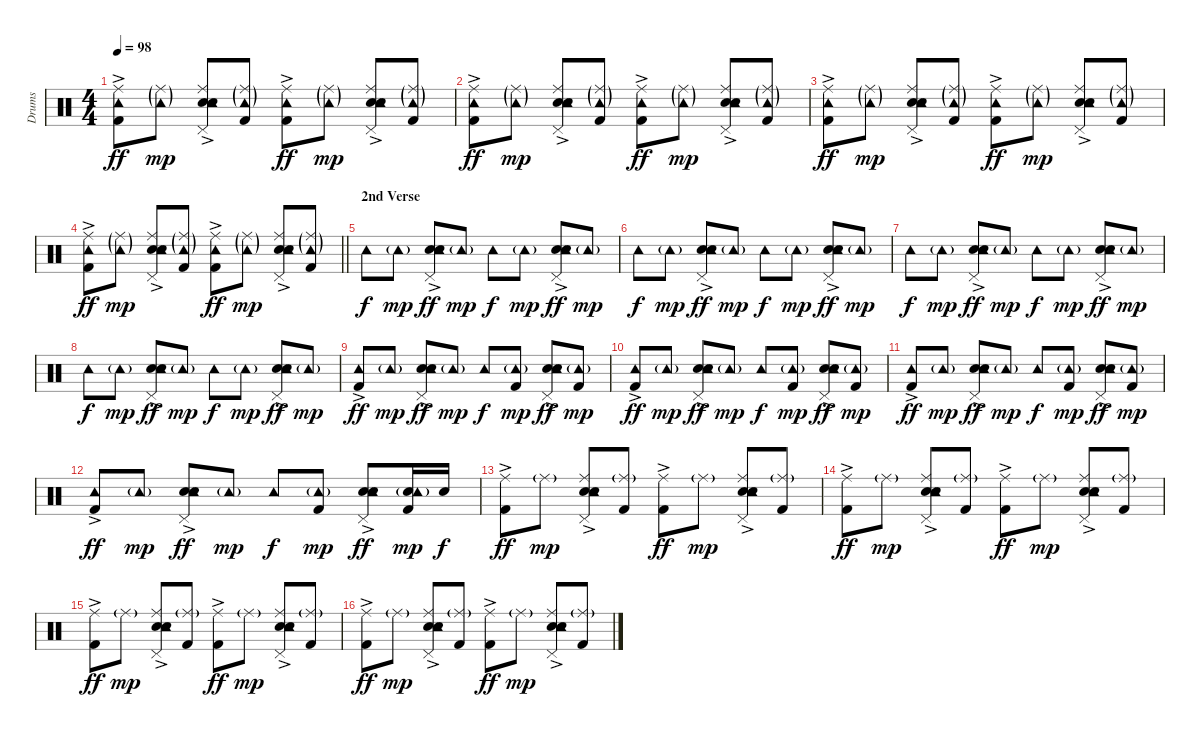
\track ("Drums" "Drums") {instrument percussion}
\staff {score}
\articulation defaults
\ts (4 4)
\tempo 98
\clef neutral
\ks c
("Kick (hit) 2"{ac} "Tambourine (hit)" "Ride (middle)").8{dy ff} ("Tambourine (hit)"{g} "Ride (middle)"{g}).8{dy mp} ("Electric Snare (hit)"{ac} "Snare (hit) 2" "Pedal Hi-Hat (hit)" "Tambourine (hit)" "Ride (middle)").8 ("Kick (hit) 2" "Tambourine (hit)"{g} "Ride (middle)"{g}).8 ("Kick (hit) 2"{ac} "Tambourine (hit)" "Ride (middle)").8{dy ff} ("Tambourine (hit)"{g} "Ride (middle)"{g}).8{dy mp} ("Electric Snare (hit)"{ac} "Snare (hit) 2" "Pedal Hi-Hat (hit)" "Tambourine (hit)" "Ride (middle)").8 ("Kick (hit) 2" "Tambourine (hit)"{g} "Ride (middle)"{g}).8 |
("Kick (hit) 2"{ac} "Tambourine (hit)" "Ride (middle)").8{dy ff} ("Tambourine (hit)"{g} "Ride (middle)"{g}).8{dy mp} ("Electric Snare (hit)"{ac} "Snare (hit) 2" "Pedal Hi-Hat (hit)" "Tambourine (hit)" "Ride (middle)").8 ("Kick (hit) 2" "Tambourine (hit)"{g} "Ride (middle)"{g}).8 ("Kick (hit) 2"{ac} "Tambourine (hit)" "Ride (middle)").8{dy ff} ("Tambourine (hit)"{g} "Ride (middle)"{g}).8{dy mp} ("Electric Snare (hit)"{ac} "Snare (hit) 2" "Pedal Hi-Hat (hit)" "Tambourine (hit)" "Ride (middle)").8 ("Kick (hit) 2" "Tambourine (hit)"{g} "Ride (middle)"{g}).8 |
("Kick (hit) 2"{ac} "Tambourine (hit)" "Ride (middle)").8{dy ff} ("Tambourine (hit)"{g} "Ride (middle)"{g}).8{dy mp} ("Electric Snare (hit)"{ac} "Snare (hit) 2" "Pedal Hi-Hat (hit)" "Tambourine (hit)" "Ride (middle)").8 ("Kick (hit) 2" "Tambourine (hit)"{g} "Ride (middle)"{g}).8 ("Kick (hit) 2"{ac} "Tambourine (hit)" "Ride (middle)").8{dy ff} ("Tambourine (hit)"{g} "Ride (middle)"{g}).8{dy mp} ("Electric Snare (hit)"{ac} "Snare (hit) 2" "Pedal Hi-Hat (hit)" "Tambourine (hit)" "Ride (middle)").8 ("Kick (hit) 2" "Tambourine (hit)"{g} "Ride (middle)"{g}).8 |
\barLineRight lightlight
("Kick (hit) 2"{ac} "Tambourine (hit)" "Ride (middle)").8{dy ff} ("Tambourine (hit)"{g} "Ride (middle)"{g}).8{dy mp} ("Electric Snare (hit)"{ac} "Snare (hit) 2" "Pedal Hi-Hat (hit)" "Tambourine (hit)" "Ride (middle)").8 ("Kick (hit) 2" "Tambourine (hit)"{g} "Ride (middle)"{g}).8 ("Kick (hit) 2"{ac} "Tambourine (hit)" "Ride (middle)").8{dy ff} ("Tambourine (hit)"{g} "Ride (middle)"{g}).8{dy mp} ("Electric Snare (hit)"{ac} "Snare (hit) 2" "Pedal Hi-Hat (hit)" "Tambourine (hit)" "Ride (middle)").8 ("Kick (hit) 2" "Tambourine (hit)"{g} "Ride (middle)"{g}).8 |
\section ("" "2nd Verse")
"Tambourine (hit)".8{dy f} "Tambourine (hit)"{g}.8{dy mp} ("Electric Snare (hit)"{ac} "Snare (hit) 2" "Pedal Hi-Hat (hit)" "Tambourine (hit)").8{dy ff} "Tambourine (hit)"{g}.8{dy mp} "Tambourine (hit)".8{dy f} "Tambourine (hit)"{g}.8{dy mp} ("Electric Snare (hit)"{ac} "Snare (hit) 2" "Pedal Hi-Hat (hit)" "Tambourine (hit)").8{dy ff} "Tambourine (hit)"{g}.8{dy mp} |
"Tambourine (hit)".8{dy f} "Tambourine (hit)"{g}.8{dy mp} ("Electric Snare (hit)"{ac} "Snare (hit) 2" "Pedal Hi-Hat (hit)" "Tambourine (hit)").8{dy ff} "Tambourine (hit)"{g}.8{dy mp} "Tambourine (hit)".8{dy f} "Tambourine (hit)"{g}.8{dy mp} ("Electric Snare (hit)"{ac} "Snare (hit) 2" "Pedal Hi-Hat (hit)" "Tambourine (hit)").8{dy ff} "Tambourine (hit)"{g}.8{dy mp} |
"Tambourine (hit)".8{dy f} "Tambourine (hit)"{g}.8{dy mp} ("Electric Snare (hit)"{ac} "Snare (hit) 2" "Pedal Hi-Hat (hit)" "Tambourine (hit)").8{dy ff} "Tambourine (hit)"{g}.8{dy mp} "Tambourine (hit)".8{dy f} "Tambourine (hit)"{g}.8{dy mp} ("Electric Snare (hit)"{ac} "Snare (hit) 2" "Pedal Hi-Hat (hit)" "Tambourine (hit)").8{dy ff} "Tambourine (hit)"{g}.8{dy mp} |
"Tambourine (hit)".8{dy f} "Tambourine (hit)"{g}.8{dy mp} ("Electric Snare (hit)"{ac} "Snare (hit) 2" "Pedal Hi-Hat (hit)" "Tambourine (hit)").8{dy ff} "Tambourine (hit)"{g}.8{dy mp} "Tambourine (hit)".8{dy f} "Tambourine (hit)"{g}.8{dy mp} ("Electric Snare (hit)"{ac} "Snare (hit) 2" "Pedal Hi-Hat (hit)" "Tambourine (hit)").8{dy ff} "Tambourine (hit)"{g}.8{dy mp} |
("Kick (hit) 2"{ac} "Tambourine (hit)").8{dy ff} "Tambourine (hit)"{g}.8{dy mp} ("Electric Snare (hit)"{ac} "Snare (hit) 2" "Pedal Hi-Hat (hit)" "Tambourine (hit)").8{dy ff} "Tambourine (hit)"{g}.8{dy mp} "Tambourine (hit)".8{dy f} ("Kick (hit) 2" "Tambourine (hit)"{g}).8{dy mp} ("Electric Snare (hit)"{ac} "Snare (hit) 2" "Pedal Hi-Hat (hit)" "Tambourine (hit)").8{dy ff} ("Kick (hit) 2" "Tambourine (hit)"{g}).8{dy mp} |
("Kick (hit) 2"{ac} "Tambourine (hit)").8{dy ff} "Tambourine (hit)"{g}.8{dy mp} ("Electric Snare (hit)"{ac} "Snare (hit) 2" "Pedal Hi-Hat (hit)" "Tambourine (hit)").8{dy ff} "Tambourine (hit)"{g}.8{dy mp} "Tambourine (hit)".8{dy f} ("Kick (hit) 2" "Tambourine (hit)"{g}).8{dy mp} ("Electric Snare (hit)"{ac} "Snare (hit) 2" "Pedal Hi-Hat (hit)" "Tambourine (hit)").8{dy ff} ("Kick (hit) 2" "Tambourine (hit)"{g}).8{dy mp} |
("Kick (hit) 2"{ac} "Tambourine (hit)").8{dy ff} "Tambourine (hit)"{g}.8{dy mp} ("Electric Snare (hit)"{ac} "Snare (hit) 2" "Pedal Hi-Hat (hit)" "Tambourine (hit)").8{dy ff} "Tambourine (hit)"{g}.8{dy mp} "Tambourine (hit)".8{dy f} ("Kick (hit) 2" "Tambourine (hit)"{g}).8{dy mp} ("Electric Snare (hit)"{ac} "Snare (hit) 2" "Pedal Hi-Hat (hit)" "Tambourine (hit)").8{dy ff} ("Kick (hit) 2" "Tambourine (hit)"{g}).8{dy mp} |
("Kick (hit) 2"{ac} "Tambourine (hit)").8{dy ff} "Tambourine (hit)"{g}.8{dy mp} ("Electric Snare (hit)"{ac} "Snare (hit) 2" "Pedal Hi-Hat (hit)" "Tambourine (hit)").8{dy ff} "Tambourine (hit)"{g}.8{dy mp} "Tambourine (hit)".8{dy f} ("Kick (hit) 2" "Tambourine (hit)"{g}).8{dy mp} ("Electric Snare (hit)"{ac} "Snare (hit) 2" "Pedal Hi-Hat (hit)" "Tambourine (hit)").8{dy ff} ("Kick (hit) 2" "Snare (hit) 2" "Tambourine (hit)"{g}).16{dy mp} "Snare (hit) 2".16{dy f} |
("Kick (hit) 2"{ac} "Ride (middle)").8{dy ff} "Ride (middle)"{g}.8{dy mp} ("Electric Snare (hit)"{ac} "Snare (hit) 2" "Pedal Hi-Hat (hit)" "Tambourine (hit)" "Ride (middle)").8 ("Kick (hit) 2" "Ride (middle)"{g}).8 ("Kick (hit) 2"{ac} "Ride (middle)").8{dy ff} "Ride (middle)"{g}.8{dy mp} ("Electric Snare (hit)"{ac} "Snare (hit) 2" "Pedal Hi-Hat (hit)" "Tambourine (hit)" "Ride (middle)").8 ("Kick (hit) 2" "Ride (middle)"{g}).8 |
("Kick (hit) 2"{ac} "Ride (middle)").8{dy ff} "Ride (middle)"{g}.8{dy mp} ("Electric Snare (hit)"{ac} "Snare (hit) 2" "Pedal Hi-Hat (hit)" "Tambourine (hit)" "Ride (middle)").8 ("Kick (hit) 2" "Ride (middle)"{g}).8 ("Kick (hit) 2"{ac} "Ride (middle)").8{dy ff} "Ride (middle)"{g}.8{dy mp} ("Electric Snare (hit)"{ac} "Snare (hit) 2" "Pedal Hi-Hat (hit)" "Tambourine (hit)" "Ride (middle)").8 ("Kick (hit) 2" "Ride (middle)"{g}).8 |
("Kick (hit) 2"{ac} "Ride (middle)").8{dy ff} "Ride (middle)"{g}.8{dy mp} ("Electric Snare (hit)"{ac} "Snare (hit) 2" "Pedal Hi-Hat (hit)" "Tambourine (hit)" "Ride (middle)").8 ("Kick (hit) 2" "Ride (middle)"{g}).8 ("Kick (hit) 2"{ac} "Ride (middle)").8{dy ff} "Ride (middle)"{g}.8{dy mp} ("Electric Snare (hit)"{ac} "Snare (hit) 2" "Pedal Hi-Hat (hit)" "Tambourine (hit)" "Ride (middle)").8 ("Kick (hit) 2" "Ride (middle)"{g}).8 |
("Kick (hit) 2"{ac} "Ride (middle)").8{dy ff} "Ride (middle)"{g}.8{dy mp} ("Electric Snare (hit)"{ac} "Snare (hit) 2" "Pedal Hi-Hat (hit)" "Tambourine (hit)" "Ride (middle)").8 ("Kick (hit) 2" "Ride (middle)"{g}).8 ("Kick (hit) 2"{ac} "Ride (middle)").8{dy ff} "Ride (middle)"{g}.8{dy mp} ("Electric Snare (hit)"{ac} "Snare (hit) 2" "Pedal Hi-Hat (hit)" "Tambourine (hit)" "Ride (middle)").8 ("Kick (hit) 2" "Ride (middle)"{g}).8
